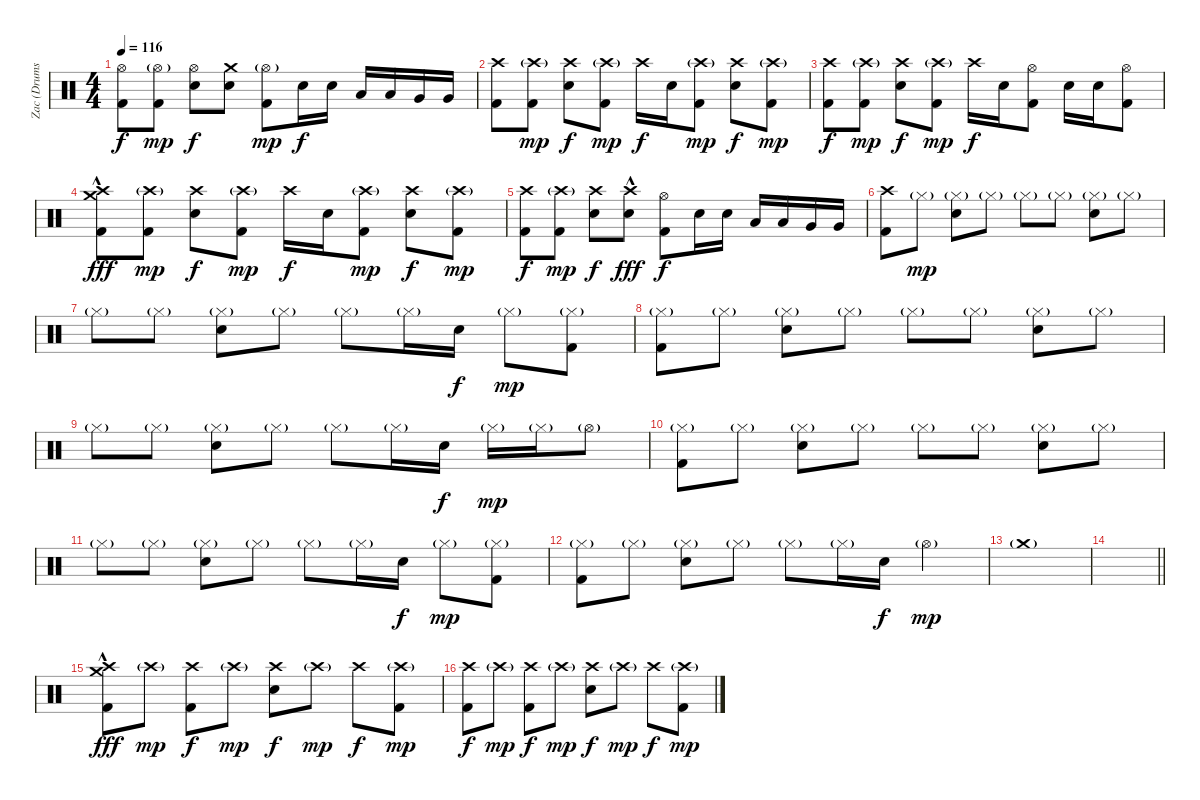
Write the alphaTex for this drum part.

\track ("Zac (Drums)" "Zac (Drums") {instrument percussion}
\staff {score}
\articulation defaults
\ts (4 4)
\tempo 116
\clef neutral
\ks c
("Hi-Hat (open)" "Kick (hit) 2").8{dy f} ("Hi-Hat (open)"{g} "Kick (hit) 2").8{dy mp} ("Hi-Hat (open)" "Electric Snare (hit)").8{dy f} ("Crash medium (hit)" "Electric Snare (hit)").8 ("Hi-Hat (open)"{g} "Kick (hit) 2").8{dy mp} "Electric Snare (hit)".16{dy f} "Electric Snare (hit)".16 "Low Tom (hit)".16 "Low Tom (hit)".16 "Very Low Tom (hit)".16 "Very Low Tom (hit)".16 |
("Crash high (hit)" "Kick (hit) 2").8 ("Crash high (hit)"{g} "Kick (hit) 2").8{dy mp} ("Crash high (hit)" "Electric Snare (hit)").8{dy f} ("Crash high (hit)"{g} "Kick (hit) 2").8{dy mp} "Crash high (hit)".16{dy f} "Electric Snare (hit)".16 ("Crash high (hit)"{g} "Kick (hit) 2").8{dy mp} ("Crash high (hit)" "Electric Snare (hit)").8{dy f} ("Crash high (hit)"{g} "Kick (hit) 2").8{dy mp} |
("Crash high (hit)" "Kick (hit) 2").8{dy f} ("Crash high (hit)"{g} "Kick (hit) 2").8{dy mp} ("Crash high (hit)" "Electric Snare (hit)").8{dy f} ("Crash high (hit)"{g} "Kick (hit) 2").8{dy mp} "Crash high (hit)".16{dy f} "Electric Snare (hit)".16 ("Hi-Hat (open)" "Kick (hit) 2").8 "Electric Snare (hit)".16 "Electric Snare (hit)".16 ("Hi-Hat (open)" "Kick (hit) 2").8 |
("Crash high (hit)"{hac} "Crash medium (hit)" "Kick (hit) 2").8{dy fff} ("Crash high (hit)"{g} "Kick (hit) 2").8{dy mp} ("Crash high (hit)" "Electric Snare (hit)").8{dy f} ("Crash high (hit)"{g} "Kick (hit) 2").8{dy mp} "Crash high (hit)".16{dy f} "Electric Snare (hit)".16 ("Crash high (hit)"{g} "Kick (hit) 2").8{dy mp} ("Crash high (hit)" "Electric Snare (hit)").8{dy f} ("Crash high (hit)"{g} "Kick (hit) 2").8{dy mp} |
("Crash high (hit)" "Kick (hit) 2").8{dy f} ("Crash high (hit)"{g} "Kick (hit) 2").8{dy mp} ("Crash high (hit)" "Electric Snare (hit)").8{dy f} ("Crash high (hit)"{hac} "Electric Snare (hit)").8{dy fff} ("Hi-Hat (open)" "Kick (hit) 2").8{dy f} "Electric Snare (hit)".16 "Electric Snare (hit)".16 "Low Tom (hit)".16 "Low Tom (hit)".16 "Very Low Tom (hit)".16 "Very Low Tom (hit)".16 |
("Crash high (hit)" "Kick (hit) 2").8 "Hi-Hat (closed)"{g}.8{dy mp} ("Hi-Hat (closed)"{g} "Electric Snare (hit)").8 "Hi-Hat (closed)"{g}.8 "Hi-Hat (closed)"{g}.8 "Hi-Hat (closed)"{g}.8 ("Hi-Hat (closed)"{g} "Electric Snare (hit)").8 "Hi-Hat (closed)"{g}.8 |
"Hi-Hat (closed)"{g}.8 "Hi-Hat (closed)"{g}.8 ("Hi-Hat (closed)"{g} "Electric Snare (hit)").8 "Hi-Hat (closed)"{g}.8 "Hi-Hat (closed)"{g}.8 "Hi-Hat (closed)"{g}.16 "Electric Snare (hit)".16{dy f} "Hi-Hat (closed)"{g}.8{dy mp} ("Hi-Hat (closed)"{g} "Kick (hit) 2").8 |
("Hi-Hat (closed)"{g} "Kick (hit) 2").8 "Hi-Hat (closed)"{g}.8 ("Hi-Hat (closed)"{g} "Electric Snare (hit)").8 "Hi-Hat (closed)"{g}.8 "Hi-Hat (closed)"{g}.8 "Hi-Hat (closed)"{g}.8 ("Hi-Hat (closed)"{g} "Electric Snare (hit)").8 "Hi-Hat (closed)"{g}.8 |
"Hi-Hat (closed)"{g}.8 "Hi-Hat (closed)"{g}.8 ("Hi-Hat (closed)"{g} "Electric Snare (hit)").8 "Hi-Hat (closed)"{g}.8 "Hi-Hat (closed)"{g}.8 "Hi-Hat (closed)"{g}.16 "Electric Snare (hit)".16{dy f} "Hi-Hat (closed)"{g}.16{dy mp} "Hi-Hat (closed)"{g}.16 "Hi-Hat (open)"{g}.8 |
("Hi-Hat (closed)"{g} "Kick (hit) 2").8 "Hi-Hat (closed)"{g}.8 ("Hi-Hat (closed)"{g} "Electric Snare (hit)").8 "Hi-Hat (closed)"{g}.8 "Hi-Hat (closed)"{g}.8 "Hi-Hat (closed)"{g}.8 ("Hi-Hat (closed)"{g} "Electric Snare (hit)").8 "Hi-Hat (closed)"{g}.8 |
"Hi-Hat (closed)"{g}.8 "Hi-Hat (closed)"{g}.8 ("Hi-Hat (closed)"{g} "Electric Snare (hit)").8 "Hi-Hat (closed)"{g}.8 "Hi-Hat (closed)"{g}.8 "Hi-Hat (closed)"{g}.16 "Electric Snare (hit)".16{dy f} "Hi-Hat (closed)"{g}.8{dy mp} ("Hi-Hat (closed)"{g} "Kick (hit) 2").8 |
("Hi-Hat (closed)"{g} "Kick (hit) 2").8 "Hi-Hat (closed)"{g}.8 ("Hi-Hat (closed)"{g} "Electric Snare (hit)").8 "Hi-Hat (closed)"{g}.8 "Hi-Hat (closed)"{g}.8 "Hi-Hat (closed)"{g}.16 "Electric Snare (hit)".16{dy f} "Hi-Hat (open)"{g}.4{dy mp} |
"Crash medium (hit)"{g}.1 |
\barLineRight lightlight
|
("Crash high (hit)"{hac} "Crash medium (hit)" "Kick (hit) 2").8{dy fff} "Crash high (hit)"{g}.8{dy mp} ("Crash high (hit)" "Kick (hit) 2").8{dy f} "Crash high (hit)"{g}.8{dy mp} ("Crash high (hit)" "Electric Snare (hit)").8{dy f} "Crash high (hit)"{g}.8{dy mp} "Crash high (hit)".8{dy f} ("Crash high (hit)"{g} "Kick (hit) 2").8{dy mp} |
("Crash high (hit)" "Kick (hit) 2").8{dy f} "Crash high (hit)"{g}.8{dy mp} ("Crash high (hit)" "Kick (hit) 2").8{dy f} "Crash high (hit)"{g}.8{dy mp} ("Crash high (hit)" "Electric Snare (hit)").8{dy f} "Crash high (hit)"{g}.8{dy mp} "Crash high (hit)".8{dy f} ("Crash high (hit)"{g} "Kick (hit) 2").8{dy mp}
